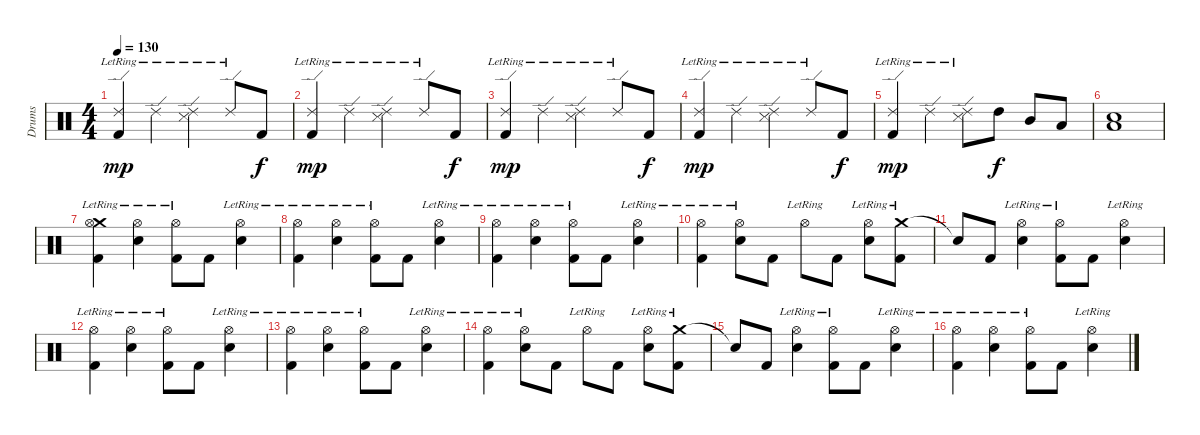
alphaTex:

\track ("Drums" "Drums") {instrument percussion}
\staff {score}
\articulation defaults
\ts (4 4)
\tempo 130
\clef neutral
\ks c
("Ride (edge) 2"{lr} "Kick (hit) 2").4{dy mp} "Ride (edge) 2"{lr}.4 ("Ride (edge) 2"{lr} "Snare (side stick) 3").4 "Ride (edge) 2"{lr}.8 "Kick (hit) 2".8{dy f} |
("Ride (edge) 2"{lr} "Kick (hit) 2").4{dy mp} "Ride (edge) 2"{lr}.4 ("Ride (edge) 2"{lr} "Snare (side stick) 3").4 "Ride (edge) 2"{lr}.8 "Kick (hit) 2".8{dy f} |
("Ride (edge) 2"{lr} "Kick (hit) 2").4{dy mp} "Ride (edge) 2"{lr}.4 ("Ride (edge) 2"{lr} "Snare (side stick) 3").4 "Ride (edge) 2"{lr}.8 "Kick (hit) 2".8{dy f} |
("Ride (edge) 2"{lr} "Kick (hit) 2").4{dy mp} "Ride (edge) 2"{lr}.4 ("Ride (edge) 2"{lr} "Snare (side stick) 3").4 "Ride (edge) 2"{lr}.8 "Kick (hit) 2".8{dy f} |
("Ride (edge) 2"{lr} "Kick (hit) 2").4{dy mp} "Ride (edge) 2"{lr}.4 ("Ride (edge) 2"{lr} "Snare (side stick) 3").8 "High Tom (hit)".8{dy f} "Mid Tom (hit)".8 "Low Tom (hit)".8 |
("Low Floor Tom (hit)" "Electric Snare (hit)").1 |
("Crash medium (hit)" "Hi-Hat (open)"{lr} "Kick (hit) 2").4 ("Hi-Hat (open)"{lr} "Electric Snare (hit)").4 ("Hi-Hat (open)"{lr} "Kick (hit) 2").8 "Kick (hit) 2".8 ("Hi-Hat (open)"{lr} "Electric Snare (hit)").4 |
("Hi-Hat (open)"{lr} "Kick (hit) 2").4 ("Hi-Hat (open)"{lr} "Electric Snare (hit)").4 ("Hi-Hat (open)"{lr} "Kick (hit) 2").8 "Kick (hit) 2".8 ("Hi-Hat (open)"{lr} "Electric Snare (hit)").4 |
("Hi-Hat (open)"{lr} "Kick (hit) 2").4 ("Hi-Hat (open)"{lr} "Electric Snare (hit)").4 ("Hi-Hat (open)"{lr} "Kick (hit) 2").8 "Kick (hit) 2".8 ("Hi-Hat (open)"{lr} "Electric Snare (hit)").4 |
("Hi-Hat (open)"{lr} "Kick (hit) 2").4 ("Hi-Hat (open)"{lr} "Electric Snare (hit)").8 "Kick (hit) 2".8 "Hi-Hat (open)"{lr}.8 "Kick (hit) 2".8 ("Hi-Hat (open)"{lr} "Electric Snare (hit)").8 ("Crash medium (hit)"{lr} "Kick (hit) 2").8 |
"Snare (hit)"{t}.8 "Kick (hit) 2".8 ("Hi-Hat (open)"{lr} "Electric Snare (hit)").4 ("Hi-Hat (open)"{lr} "Kick (hit) 2").8 "Kick (hit) 2".8 ("Hi-Hat (open)"{lr} "Electric Snare (hit)").4 |
("Hi-Hat (open)"{lr} "Kick (hit) 2").4 ("Hi-Hat (open)"{lr} "Electric Snare (hit)").4 ("Hi-Hat (open)"{lr} "Kick (hit) 2").8 "Kick (hit) 2".8 ("Hi-Hat (open)"{lr} "Electric Snare (hit)").4 |
("Hi-Hat (open)"{lr} "Kick (hit) 2").4 ("Hi-Hat (open)"{lr} "Electric Snare (hit)").4 ("Hi-Hat (open)"{lr} "Kick (hit) 2").8 "Kick (hit) 2".8 ("Hi-Hat (open)"{lr} "Electric Snare (hit)").4 |
("Hi-Hat (open)"{lr} "Kick (hit) 2").4 ("Hi-Hat (open)"{lr} "Electric Snare (hit)").8 "Kick (hit) 2".8 "Hi-Hat (open)"{lr}.8 "Kick (hit) 2".8 ("Hi-Hat (open)"{lr} "Electric Snare (hit)").8 ("Crash medium (hit)"{lr} "Kick (hit) 2").8 |
"Snare (hit)"{t}.8 "Kick (hit) 2".8 ("Hi-Hat (open)"{lr} "Electric Snare (hit)").4 ("Hi-Hat (open)"{lr} "Kick (hit) 2").8 "Kick (hit) 2".8 ("Hi-Hat (open)"{lr} "Electric Snare (hit)").4 |
("Hi-Hat (open)"{lr} "Kick (hit) 2").4 ("Hi-Hat (open)"{lr} "Electric Snare (hit)").4 ("Hi-Hat (open)"{lr} "Kick (hit) 2").8 "Kick (hit) 2".8 ("Hi-Hat (open)"{lr} "Electric Snare (hit)").4
